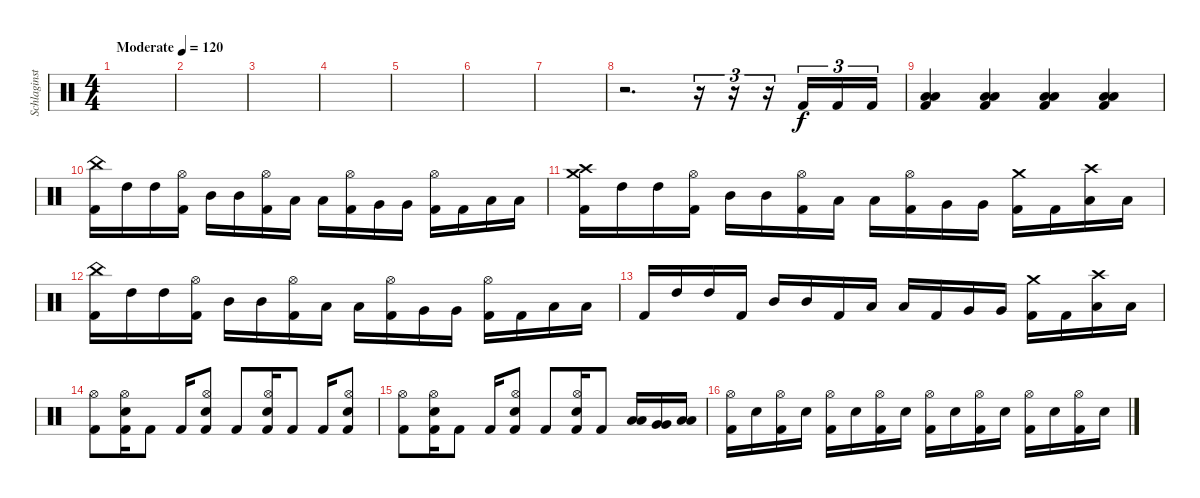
\track ("Schlaginstrumente - Auswahl" "Schlaginst") {instrument percussion}
\staff {score}
\articulation defaults
\ts (4 4)
\tempo (120 "Moderate")
\clef neutral
\ks c
|
|
|
|
|
|
|
r.2{d} r.16{tu (3 2)} r.16{tu (3 2)} r.16{tu (3 2)} "Kick (hit) 2".16{tu (3 2)} "Kick (hit) 2".16{tu (3 2)} "Kick (hit) 2".16{tu (3 2)} |
("Low Floor Tom (hit)" "Low Floor Tom (hit)" "Kick (hit) 2").4 ("Low Floor Tom (hit)" "Low Floor Tom (hit)" "Kick (hit) 2").4 ("Low Floor Tom (hit)" "Low Floor Tom (hit)" "Kick (hit) 2").4 ("Low Floor Tom (hit)" "Low Floor Tom (hit)" "Kick (hit) 2").4 |
("China (hit)" "Kick (hit) 2").16 "High Tom (hit)".16 "High Tom (hit)".16 ("Hi-Hat (open)" "Kick (hit) 2").16 "Mid Tom (hit)".16 "Mid Tom (hit)".16 ("Hi-Hat (open)" "Kick (hit) 2").16 "Low Tom (hit)".16 "Low Tom (hit)".16 ("Hi-Hat (open)" "Kick (hit) 2").16 "Very Low Tom (hit)".16 "Very Low Tom (hit)".16 ("Hi-Hat (open)" "Kick (hit) 2").16 "Kick (hit) 2".16 "Low Floor Tom (hit)".16 "Low Floor Tom (hit)".16 |
("Crash high (hit)" "Crash medium (hit)" "Kick (hit) 2").16 "High Tom (hit)".16 "High Tom (hit)".16 ("Hi-Hat (open)" "Kick (hit) 2").16 "Mid Tom (hit)".16 "Mid Tom (hit)".16 ("Hi-Hat (open)" "Kick (hit) 2").16 "Low Tom (hit)".16 "Low Tom (hit)".16 ("Hi-Hat (open)" "Kick (hit) 2").16 "Very Low Tom (hit)".16 "Very Low Tom (hit)".16 ("Crash medium (hit)" "Kick (hit) 2").16 "Kick (hit) 2".16 ("Crash high (hit)" "Low Floor Tom (hit)").16 "Low Floor Tom (hit)".16 |
("China (hit)" "Kick (hit) 2").16 "High Tom (hit)".16 "High Tom (hit)".16 ("Hi-Hat (open)" "Kick (hit) 2").16 "Mid Tom (hit)".16 "Mid Tom (hit)".16 ("Hi-Hat (open)" "Kick (hit) 2").16 "Low Tom (hit)".16 "Low Tom (hit)".16 ("Hi-Hat (open)" "Kick (hit) 2").16 "Very Low Tom (hit)".16 "Very Low Tom (hit)".16 ("Hi-Hat (open)" "Kick (hit) 2").16 "Kick (hit) 2".16 "Low Floor Tom (hit)".16 "Low Floor Tom (hit)".16 |
"Kick (hit) 2".16 "High Tom (hit)".16 "High Tom (hit)".16 "Kick (hit) 2".16 "Mid Tom (hit)".16 "Mid Tom (hit)".16 "Kick (hit) 2".16 "Low Tom (hit)".16 "Low Tom (hit)".16 "Kick (hit) 2".16 "Very Low Tom (hit)".16 "Very Low Tom (hit)".16 ("Crash medium (hit)" "Kick (hit) 2").16 "Kick (hit) 2".16 ("Crash high (hit)" "Low Floor Tom (hit)").16 "Low Floor Tom (hit)".16 |
("Hi-Hat (open)" "Kick (hit) 2").8 ("Hi-Hat (open)" "Electric Snare (hit)" "Kick (hit) 2").16 "Kick (hit) 2".8 "Kick (hit) 2".16 ("Hi-Hat (open)" "Electric Snare (hit)" "Kick (hit) 2").8 "Kick (hit) 2".8 ("Hi-Hat (open)" "Electric Snare (hit)" "Kick (hit) 2").16 "Kick (hit) 2".8 "Kick (hit) 2".16 ("Hi-Hat (open)" "Electric Snare (hit)" "Kick (hit) 2").8 |
("Hi-Hat (open)" "Kick (hit) 2").8 ("Hi-Hat (open)" "Electric Snare (hit)" "Kick (hit) 2").16 "Kick (hit) 2".8 "Kick (hit) 2".16 ("Hi-Hat (open)" "Electric Snare (hit)" "Kick (hit) 2").8 "Kick (hit) 2".8 ("Hi-Hat (open)" "Electric Snare (hit)" "Kick (hit) 2").16 "Kick (hit) 2".8 ("Low Tom (hit)" "Low Tom (hit)").16 ("Very Low Tom (hit)" "Very Low Tom (hit)").16 ("Low Floor Tom (hit)" "Low Floor Tom (hit)").16 |
("Hi-Hat (open)" "Kick (hit) 2").16 "Electric Snare (hit)".16 ("Hi-Hat (open)" "Kick (hit) 2").16 "Electric Snare (hit)".16 ("Hi-Hat (open)" "Kick (hit) 2").16 "Electric Snare (hit)".16 ("Hi-Hat (open)" "Kick (hit) 2").16 "Electric Snare (hit)".16 ("Hi-Hat (open)" "Kick (hit) 2").16 "Electric Snare (hit)".16 ("Hi-Hat (open)" "Kick (hit) 2").16 "Electric Snare (hit)".16 ("Hi-Hat (open)" "Kick (hit) 2").16 "Electric Snare (hit)".16 ("Hi-Hat (open)" "Kick (hit) 2").16 "Electric Snare (hit)".16
